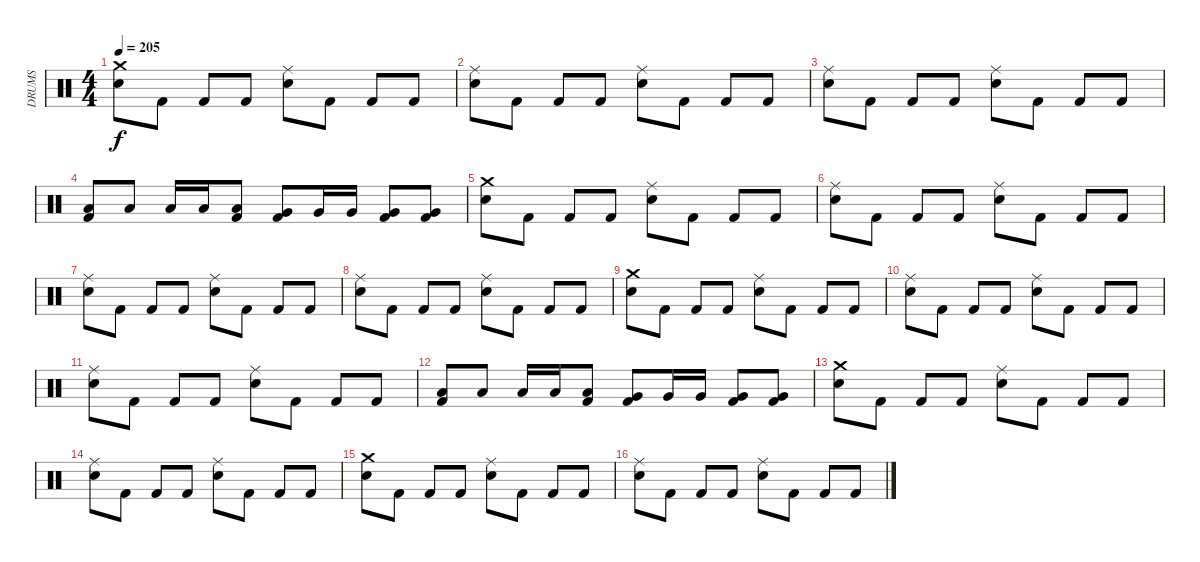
\track ("DRUMS" "DRUMS") {instrument percussion}
\staff {score}
\articulation defaults
\ts (4 4)
\tempo 205
\clef neutral
\ks c
("Crash medium (hit)" "Snare (hit) 2").8{dy f} "Kick (hit) 2".8 "Kick (hit) 2".8 "Kick (hit) 2".8 ("Ride (middle)" "Snare (hit) 2").8 "Kick (hit) 2".8 "Kick (hit) 2".8 "Kick (hit) 2".8 |
("Ride (middle)" "Snare (hit) 2").8 "Kick (hit) 2".8 "Kick (hit) 2".8 "Kick (hit) 2".8 ("Ride (middle)" "Snare (hit) 2").8 "Kick (hit) 2".8 "Kick (hit) 2".8 "Kick (hit) 2".8 |
("Ride (middle)" "Snare (hit) 2").8 "Kick (hit) 2".8 "Kick (hit) 2".8 "Kick (hit) 2".8 ("Ride (middle)" "Snare (hit) 2").8 "Kick (hit) 2".8 "Kick (hit) 2".8 "Kick (hit) 2".8 |
("Low Tom (hit)" "Kick (hit) 2").8 "Low Tom (hit)".8 "Low Tom (hit)".16 "Low Tom (hit)".16 ("Low Tom (hit)" "Kick (hit) 2").8 ("Very Low Tom (hit)" "Kick (hit) 2").8 "Very Low Tom (hit)".16 "Very Low Tom (hit)".16 ("Very Low Tom (hit)" "Kick (hit) 2").8 ("Very Low Tom (hit)" "Kick (hit) 2").8 |
("Crash medium (hit)" "Snare (hit) 2").8 "Kick (hit) 2".8 "Kick (hit) 2".8 "Kick (hit) 2".8 ("Ride (middle)" "Snare (hit) 2").8 "Kick (hit) 2".8 "Kick (hit) 2".8 "Kick (hit) 2".8 |
("Ride (middle)" "Snare (hit) 2").8 "Kick (hit) 2".8 "Kick (hit) 2".8 "Kick (hit) 2".8 ("Ride (middle)" "Snare (hit) 2").8 "Kick (hit) 2".8 "Kick (hit) 2".8 "Kick (hit) 2".8 |
("Ride (middle)" "Snare (hit) 2").8 "Kick (hit) 2".8 "Kick (hit) 2".8 "Kick (hit) 2".8 ("Ride (middle)" "Snare (hit) 2").8 "Kick (hit) 2".8 "Kick (hit) 2".8 "Kick (hit) 2".8 |
("Ride (middle)" "Snare (hit) 2").8 "Kick (hit) 2".8 "Kick (hit) 2".8 "Kick (hit) 2".8 ("Ride (middle)" "Snare (hit) 2").8 "Kick (hit) 2".8 "Kick (hit) 2".8 "Kick (hit) 2".8 |
("Crash medium (hit)" "Snare (hit) 2").8 "Kick (hit) 2".8 "Kick (hit) 2".8 "Kick (hit) 2".8 ("Ride (middle)" "Snare (hit) 2").8 "Kick (hit) 2".8 "Kick (hit) 2".8 "Kick (hit) 2".8 |
("Ride (middle)" "Snare (hit) 2").8 "Kick (hit) 2".8 "Kick (hit) 2".8 "Kick (hit) 2".8 ("Ride (middle)" "Snare (hit) 2").8 "Kick (hit) 2".8 "Kick (hit) 2".8 "Kick (hit) 2".8 |
("Ride (middle)" "Snare (hit) 2").8 "Kick (hit) 2".8 "Kick (hit) 2".8 "Kick (hit) 2".8 ("Ride (middle)" "Snare (hit) 2").8 "Kick (hit) 2".8 "Kick (hit) 2".8 "Kick (hit) 2".8 |
("Low Tom (hit)" "Kick (hit) 2").8 "Low Tom (hit)".8 "Low Tom (hit)".16 "Low Tom (hit)".16 ("Low Tom (hit)" "Kick (hit) 2").8 ("Very Low Tom (hit)" "Kick (hit) 2").8 "Very Low Tom (hit)".16 "Very Low Tom (hit)".16 ("Very Low Tom (hit)" "Kick (hit) 2").8 ("Very Low Tom (hit)" "Kick (hit) 2").8 |
("Crash medium (hit)" "Snare (hit) 2").8 "Kick (hit) 2".8 "Kick (hit) 2".8 "Kick (hit) 2".8 ("Ride (middle)" "Snare (hit) 2").8 "Kick (hit) 2".8 "Kick (hit) 2".8 "Kick (hit) 2".8 |
("Ride (middle)" "Snare (hit) 2").8 "Kick (hit) 2".8 "Kick (hit) 2".8 "Kick (hit) 2".8 ("Ride (middle)" "Snare (hit) 2").8 "Kick (hit) 2".8 "Kick (hit) 2".8 "Kick (hit) 2".8 |
("Crash medium (hit)" "Snare (hit) 2").8 "Kick (hit) 2".8 "Kick (hit) 2".8 "Kick (hit) 2".8 ("Ride (middle)" "Snare (hit) 2").8 "Kick (hit) 2".8 "Kick (hit) 2".8 "Kick (hit) 2".8 |
("Ride (middle)" "Snare (hit) 2").8 "Kick (hit) 2".8 "Kick (hit) 2".8 "Kick (hit) 2".8 ("Ride (middle)" "Snare (hit) 2").8 "Kick (hit) 2".8 "Kick (hit) 2".8 "Kick (hit) 2".8
